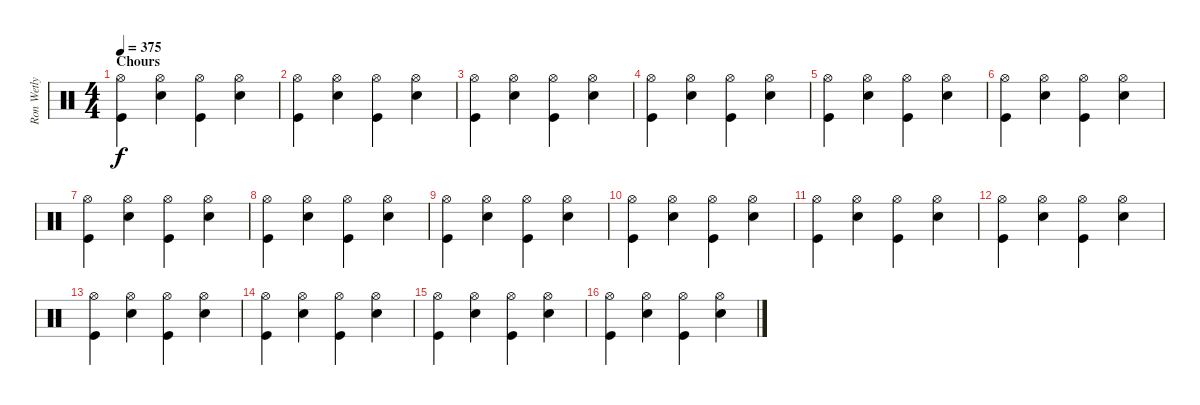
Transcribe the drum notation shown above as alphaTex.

\track ("Ron Wetly (Drums)" "Ron Wetly ") {instrument percussion}
\staff {score}
\articulation defaults
\ts (4 4)
\section ("" "Chours")
\tempo 375
\clef neutral
\ks c
("Hi-Hat (open)" "Kick (hit)").4{dy f} ("Hi-Hat (open)" "Snare (hit) 2").4 ("Hi-Hat (open)" "Kick (hit)").4 ("Hi-Hat (open)" "Snare (hit) 2").4 |
("Hi-Hat (open)" "Kick (hit)").4 ("Hi-Hat (open)" "Snare (hit) 2").4 ("Hi-Hat (open)" "Kick (hit)").4 ("Hi-Hat (open)" "Snare (hit) 2").4 |
("Hi-Hat (open)" "Kick (hit)").4 ("Hi-Hat (open)" "Snare (hit) 2").4 ("Hi-Hat (open)" "Kick (hit)").4 ("Hi-Hat (open)" "Snare (hit) 2").4 |
("Hi-Hat (open)" "Kick (hit)").4 ("Hi-Hat (open)" "Snare (hit) 2").4 ("Hi-Hat (open)" "Kick (hit)").4 ("Hi-Hat (open)" "Snare (hit) 2").4 |
("Hi-Hat (open)" "Kick (hit)").4 ("Hi-Hat (open)" "Snare (hit) 2").4 ("Hi-Hat (open)" "Kick (hit)").4 ("Hi-Hat (open)" "Snare (hit) 2").4 |
("Hi-Hat (open)" "Kick (hit)").4 ("Hi-Hat (open)" "Snare (hit) 2").4 ("Hi-Hat (open)" "Kick (hit)").4 ("Hi-Hat (open)" "Snare (hit) 2").4 |
("Hi-Hat (open)" "Kick (hit)").4 ("Hi-Hat (open)" "Snare (hit) 2").4 ("Hi-Hat (open)" "Kick (hit)").4 ("Hi-Hat (open)" "Snare (hit) 2").4 |
("Hi-Hat (open)" "Kick (hit)").4 ("Hi-Hat (open)" "Snare (hit) 2").4 ("Hi-Hat (open)" "Kick (hit)").4 ("Hi-Hat (open)" "Snare (hit) 2").4 |
("Hi-Hat (open)" "Kick (hit)").4 ("Hi-Hat (open)" "Snare (hit) 2").4 ("Hi-Hat (open)" "Kick (hit)").4 ("Hi-Hat (open)" "Snare (hit) 2").4 |
("Hi-Hat (open)" "Kick (hit)").4 ("Hi-Hat (open)" "Snare (hit) 2").4 ("Hi-Hat (open)" "Kick (hit)").4 ("Hi-Hat (open)" "Snare (hit) 2").4 |
("Hi-Hat (open)" "Kick (hit)").4 ("Hi-Hat (open)" "Snare (hit) 2").4 ("Hi-Hat (open)" "Kick (hit)").4 ("Hi-Hat (open)" "Snare (hit) 2").4 |
("Hi-Hat (open)" "Kick (hit)").4 ("Hi-Hat (open)" "Snare (hit) 2").4 ("Hi-Hat (open)" "Kick (hit)").4 ("Hi-Hat (open)" "Snare (hit) 2").4 |
("Hi-Hat (open)" "Kick (hit)").4 ("Hi-Hat (open)" "Snare (hit) 2").4 ("Hi-Hat (open)" "Kick (hit)").4 ("Hi-Hat (open)" "Snare (hit) 2").4 |
("Hi-Hat (open)" "Kick (hit)").4 ("Hi-Hat (open)" "Snare (hit) 2").4 ("Hi-Hat (open)" "Kick (hit)").4 ("Hi-Hat (open)" "Snare (hit) 2").4 |
("Hi-Hat (open)" "Kick (hit)").4 ("Hi-Hat (open)" "Snare (hit) 2").4 ("Hi-Hat (open)" "Kick (hit)").4 ("Hi-Hat (open)" "Snare (hit) 2").4 |
("Hi-Hat (open)" "Kick (hit)").4 ("Hi-Hat (open)" "Snare (hit) 2").4 ("Hi-Hat (open)" "Kick (hit)").4 ("Hi-Hat (open)" "Snare (hit) 2").4
